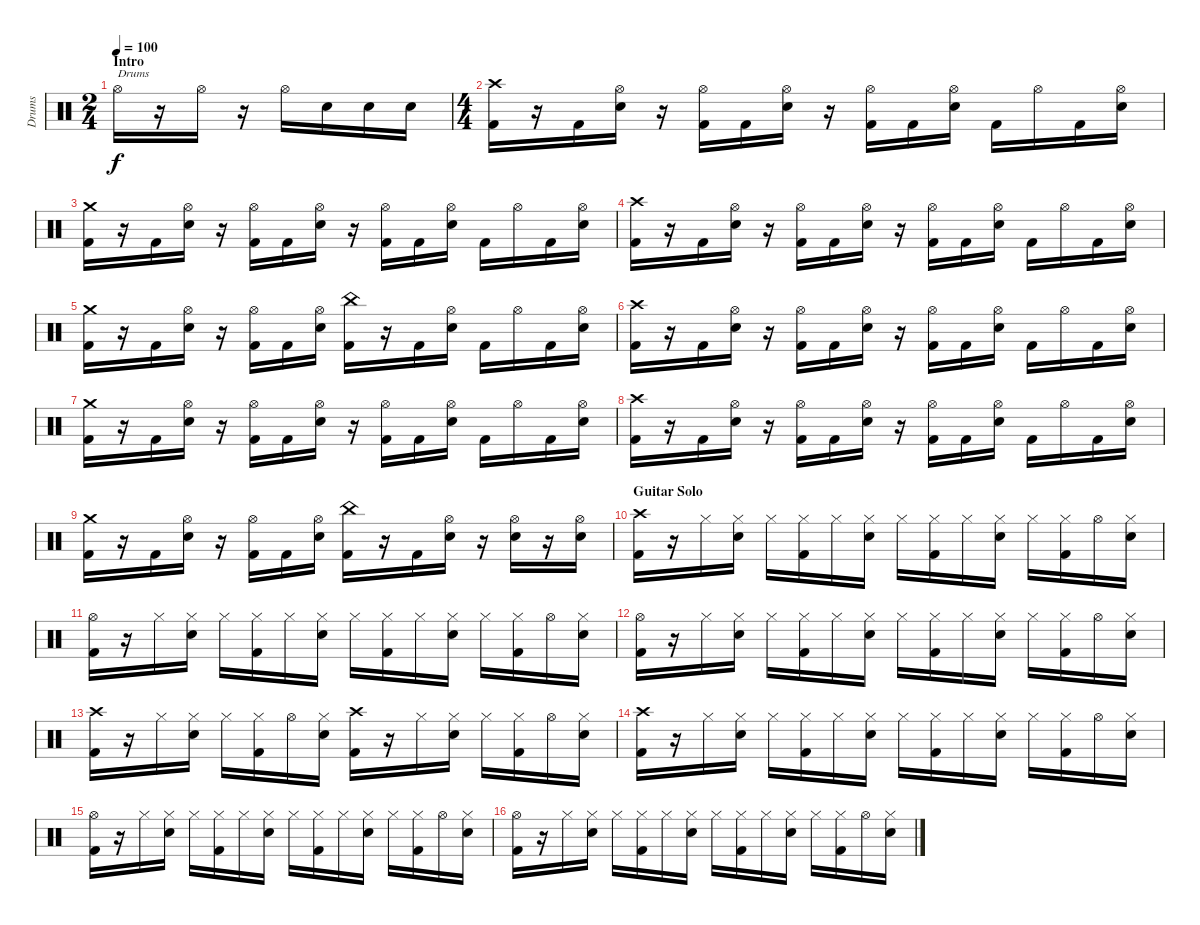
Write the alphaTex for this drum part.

\track ("Drums" "Drums") {instrument percussion}
\staff {score}
\articulation defaults
\ts (2 4)
\section ("" "Intro")
\tempo 100
\clef neutral
\ks c "Hi-Hat (open)".16{txt "Drums" dy f}
r.16 "Hi-Hat (open)".16 r.16 "Hi-Hat (open)".16 "Snare (hit) 2".16 "Snare (hit) 2".16 "Snare (hit) 2".16 |
\ts (4 4)
("Crash high (hit)" "Kick (hit) 2").16 r.16 "Kick (hit) 2".16 ("Hi-Hat (open)" "Snare (hit) 2").16 r.16 ("Hi-Hat (open)" "Kick (hit) 2").16 "Kick (hit) 2".16 ("Hi-Hat (open)" "Snare (hit) 2").16 r.16 ("Hi-Hat (open)" "Kick (hit) 2").16 "Kick (hit) 2".16 ("Hi-Hat (open)" "Snare (hit) 2").16 "Kick (hit) 2".16 "Hi-Hat (open)".16 "Kick (hit) 2".16 ("Hi-Hat (open)" "Snare (hit) 2").16 |
("Crash medium (hit)" "Kick (hit) 2").16 r.16 "Kick (hit) 2".16 ("Hi-Hat (open)" "Snare (hit) 2").16 r.16 ("Hi-Hat (open)" "Kick (hit) 2").16 "Kick (hit) 2".16 ("Hi-Hat (open)" "Snare (hit) 2").16 r.16 ("Hi-Hat (open)" "Kick (hit) 2").16 "Kick (hit) 2".16 ("Hi-Hat (open)" "Snare (hit) 2").16 "Kick (hit) 2".16 "Hi-Hat (open)".16 "Kick (hit) 2".16 ("Hi-Hat (open)" "Snare (hit) 2").16 |
("Crash high (hit)" "Kick (hit) 2").16 r.16 "Kick (hit) 2".16 ("Hi-Hat (open)" "Snare (hit) 2").16 r.16 ("Hi-Hat (open)" "Kick (hit) 2").16 "Kick (hit) 2".16 ("Hi-Hat (open)" "Snare (hit) 2").16 r.16 ("Hi-Hat (open)" "Kick (hit) 2").16 "Kick (hit) 2".16 ("Hi-Hat (open)" "Snare (hit) 2").16 "Kick (hit) 2".16 "Hi-Hat (open)".16 "Kick (hit) 2".16 ("Hi-Hat (open)" "Snare (hit) 2").16 |
("Crash medium (hit)" "Kick (hit) 2").16 r.16 "Kick (hit) 2".16 ("Hi-Hat (open)" "Snare (hit) 2").16 r.16 ("Hi-Hat (open)" "Kick (hit) 2").16 "Kick (hit) 2".16 ("Hi-Hat (open)" "Snare (hit) 2").16 ("China (hit)" "Kick (hit) 2").16 r.16 "Kick (hit) 2".16 ("Hi-Hat (open)" "Snare (hit) 2").16 "Kick (hit) 2".16 "Hi-Hat (open)".16 "Kick (hit) 2".16 ("Hi-Hat (open)" "Snare (hit) 2").16 |
("Crash high (hit)" "Kick (hit) 2").16 r.16 "Kick (hit) 2".16 ("Hi-Hat (open)" "Snare (hit) 2").16 r.16 ("Hi-Hat (open)" "Kick (hit) 2").16 "Kick (hit) 2".16 ("Hi-Hat (open)" "Snare (hit) 2").16 r.16 ("Hi-Hat (open)" "Kick (hit) 2").16 "Kick (hit) 2".16 ("Hi-Hat (open)" "Snare (hit) 2").16 "Kick (hit) 2".16 "Hi-Hat (open)".16 "Kick (hit) 2".16 ("Hi-Hat (open)" "Snare (hit) 2").16 |
("Crash medium (hit)" "Kick (hit) 2").16 r.16 "Kick (hit) 2".16 ("Hi-Hat (open)" "Snare (hit) 2").16 r.16 ("Hi-Hat (open)" "Kick (hit) 2").16 "Kick (hit) 2".16 ("Hi-Hat (open)" "Snare (hit) 2").16 r.16 ("Hi-Hat (open)" "Kick (hit) 2").16 "Kick (hit) 2".16 ("Hi-Hat (open)" "Snare (hit) 2").16 "Kick (hit) 2".16 "Hi-Hat (open)".16 "Kick (hit) 2".16 ("Hi-Hat (open)" "Snare (hit) 2").16 |
("Crash high (hit)" "Kick (hit) 2").16 r.16 "Kick (hit) 2".16 ("Hi-Hat (open)" "Snare (hit) 2").16 r.16 ("Hi-Hat (open)" "Kick (hit) 2").16 "Kick (hit) 2".16 ("Hi-Hat (open)" "Snare (hit) 2").16 r.16 ("Hi-Hat (open)" "Kick (hit) 2").16 "Kick (hit) 2".16 ("Hi-Hat (open)" "Snare (hit) 2").16 "Kick (hit) 2".16 "Hi-Hat (open)".16 "Kick (hit) 2".16 ("Hi-Hat (open)" "Snare (hit) 2").16 |
("Crash medium (hit)" "Kick (hit) 2").16 r.16 "Kick (hit) 2".16 ("Hi-Hat (open)" "Snare (hit) 2").16 r.16 ("Hi-Hat (open)" "Kick (hit) 2").16 "Kick (hit) 2".16 ("Hi-Hat (open)" "Snare (hit) 2").16 ("China (hit)" "Kick (hit) 2").16 r.16 "Kick (hit) 2".16 ("Hi-Hat (open)" "Snare (hit) 2").16 r.16 ("Hi-Hat (open)" "Snare (hit) 2").16 r.16 ("Hi-Hat (open)" "Snare (hit) 2").16 |
\section ("" "Guitar Solo")
("Crash high (hit)" "Kick (hit) 2").16 r.16 "Hi-Hat (closed)".16 ("Hi-Hat (closed)" "Snare (hit) 2").16 "Hi-Hat (closed)".16 ("Hi-Hat (closed)" "Kick (hit) 2").16 "Hi-Hat (closed)".16 ("Hi-Hat (closed)" "Snare (hit) 2").16 "Hi-Hat (closed)".16 ("Hi-Hat (closed)" "Kick (hit) 2").16 "Hi-Hat (closed)".16 ("Hi-Hat (closed)" "Snare (hit) 2").16 "Hi-Hat (closed)".16 ("Hi-Hat (closed)" "Kick (hit) 2").16 "Hi-Hat (open)".16 ("Hi-Hat (closed)" "Snare (hit) 2").16 |
("Hi-Hat (open)" "Kick (hit) 2").16 r.16 "Hi-Hat (closed)".16 ("Hi-Hat (closed)" "Snare (hit) 2").16 "Hi-Hat (closed)".16 ("Hi-Hat (closed)" "Kick (hit) 2").16 "Hi-Hat (closed)".16 ("Hi-Hat (closed)" "Snare (hit) 2").16 "Hi-Hat (closed)".16 ("Hi-Hat (closed)" "Kick (hit) 2").16 "Hi-Hat (closed)".16 ("Hi-Hat (closed)" "Snare (hit) 2").16 "Hi-Hat (closed)".16 ("Hi-Hat (closed)" "Kick (hit) 2").16 "Hi-Hat (open)".16 ("Hi-Hat (closed)" "Snare (hit) 2").16 |
("Hi-Hat (open)" "Kick (hit) 2").16 r.16 "Hi-Hat (closed)".16 ("Hi-Hat (closed)" "Snare (hit) 2").16 "Hi-Hat (closed)".16 ("Hi-Hat (closed)" "Kick (hit) 2").16 "Hi-Hat (closed)".16 ("Hi-Hat (closed)" "Snare (hit) 2").16 "Hi-Hat (closed)".16 ("Hi-Hat (closed)" "Kick (hit) 2").16 "Hi-Hat (closed)".16 ("Hi-Hat (closed)" "Snare (hit) 2").16 "Hi-Hat (closed)".16 ("Hi-Hat (closed)" "Kick (hit) 2").16 "Hi-Hat (open)".16 ("Hi-Hat (closed)" "Snare (hit) 2").16 |
("Crash high (hit)" "Kick (hit) 2").16 r.16 "Hi-Hat (closed)".16 ("Hi-Hat (closed)" "Snare (hit) 2").16 "Hi-Hat (closed)".16 ("Hi-Hat (closed)" "Kick (hit) 2").16 "Hi-Hat (open)".16 ("Hi-Hat (closed)" "Snare (hit) 2").16 ("Crash high (hit)" "Kick (hit) 2").16 r.16 "Hi-Hat (closed)".16 ("Hi-Hat (closed)" "Snare (hit) 2").16 "Hi-Hat (closed)".16 ("Hi-Hat (closed)" "Kick (hit) 2").16 "Hi-Hat (open)".16 ("Hi-Hat (closed)" "Snare (hit) 2").16 |
("Crash high (hit)" "Kick (hit) 2").16 r.16 "Hi-Hat (closed)".16 ("Hi-Hat (closed)" "Snare (hit) 2").16 "Hi-Hat (closed)".16 ("Hi-Hat (closed)" "Kick (hit) 2").16 "Hi-Hat (closed)".16 ("Hi-Hat (closed)" "Snare (hit) 2").16 "Hi-Hat (closed)".16 ("Hi-Hat (closed)" "Kick (hit) 2").16 "Hi-Hat (closed)".16 ("Hi-Hat (closed)" "Snare (hit) 2").16 "Hi-Hat (closed)".16 ("Hi-Hat (closed)" "Kick (hit) 2").16 "Hi-Hat (open)".16 ("Hi-Hat (closed)" "Snare (hit) 2").16 |
("Hi-Hat (open)" "Kick (hit) 2").16 r.16 "Hi-Hat (closed)".16 ("Hi-Hat (closed)" "Snare (hit) 2").16 "Hi-Hat (closed)".16 ("Hi-Hat (closed)" "Kick (hit) 2").16 "Hi-Hat (closed)".16 ("Hi-Hat (closed)" "Snare (hit) 2").16 "Hi-Hat (closed)".16 ("Hi-Hat (closed)" "Kick (hit) 2").16 "Hi-Hat (closed)".16 ("Hi-Hat (closed)" "Snare (hit) 2").16 "Hi-Hat (closed)".16 ("Hi-Hat (closed)" "Kick (hit) 2").16 "Hi-Hat (open)".16 ("Hi-Hat (closed)" "Snare (hit) 2").16 |
("Hi-Hat (open)" "Kick (hit) 2").16 r.16 "Hi-Hat (closed)".16 ("Hi-Hat (closed)" "Snare (hit) 2").16 "Hi-Hat (closed)".16 ("Hi-Hat (closed)" "Kick (hit) 2").16 "Hi-Hat (closed)".16 ("Hi-Hat (closed)" "Snare (hit) 2").16 "Hi-Hat (closed)".16 ("Hi-Hat (closed)" "Kick (hit) 2").16 "Hi-Hat (closed)".16 ("Hi-Hat (closed)" "Snare (hit) 2").16 "Hi-Hat (closed)".16 ("Hi-Hat (closed)" "Kick (hit) 2").16 "Hi-Hat (open)".16 ("Hi-Hat (closed)" "Snare (hit) 2").16
